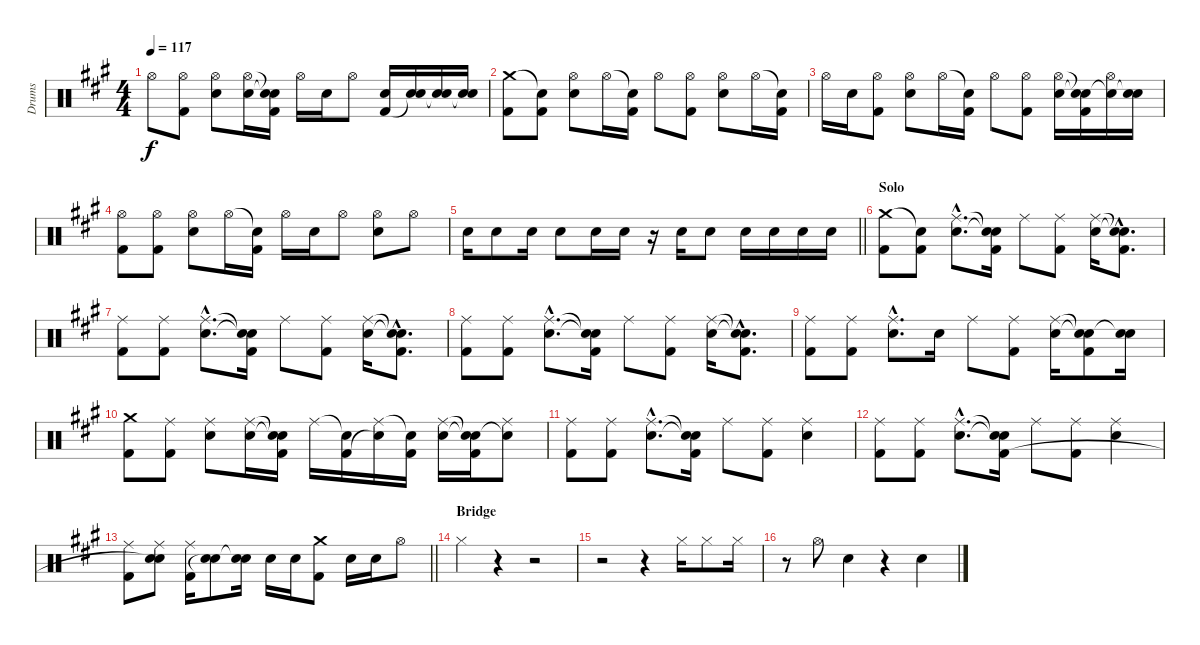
\track ("Drums" "Drums") {instrument percussion}
\staff {score}
\articulation defaults
\ts (4 4)
\tempo 117
\clef neutral
\ks f#minor "Hi-Hat (open)".8{dy f}
("Hi-Hat (open)" "Kick (hit) 2").8 ("Hi-Hat (open)" "Electric Snare (hit)").8 ("Hi-Hat (open)" "Electric Snare (hit)").16 ("Snare (hit)"{t} "Snare (hit)"{t} "Kick (hit) 2").16 "Hi-Hat (open)".16 "Electric Snare (hit)".16 "Hi-Hat (open)".8 ("Electric Snare (hit)" "Kick (hit) 2").16 ("Electric Snare (hit)" "Snare (hit)"{t}).16 ("Electric Snare (hit)" "Snare (hit)"{t}).16 ("Electric Snare (hit)" "Snare (hit)"{t}).16 |
("Crash medium (hit)" "Kick (hit) 2").8 ("Snare (hit)"{t} "Kick (hit) 2").8 ("Hi-Hat (open)" "Electric Snare (hit)").8 "Hi-Hat (open)".16 ("Snare (hit)"{t} "Kick (hit) 2").16 "Hi-Hat (open)".8 ("Hi-Hat (open)" "Kick (hit) 2").8 ("Hi-Hat (open)" "Electric Snare (hit)").8 "Hi-Hat (open)".16 ("Snare (hit)"{t} "Kick (hit) 2").16 |
"Hi-Hat (open)".16 "Electric Snare (hit)".16 ("Hi-Hat (open)" "Kick (hit) 2").8 ("Hi-Hat (open)" "Electric Snare (hit)").8 "Hi-Hat (open)".16 ("Snare (hit)"{t} "Kick (hit) 2").16 "Hi-Hat (open)".8 ("Hi-Hat (open)" "Kick (hit) 2").8 ("Hi-Hat (open)" "Electric Snare (hit)").16 ("Snare (hit)"{t} "Snare (hit)"{t} "Kick (hit) 2").16 ("Hi-Hat (open)" "Snare (hit)"{t}).16 ("Electric Snare (hit)" "Snare (hit)"{t}).16 |
("Hi-Hat (open)" "Kick (hit) 2").8 ("Hi-Hat (open)" "Kick (hit) 2").8 ("Hi-Hat (open)" "Electric Snare (hit)").8 "Hi-Hat (open)".16 ("Snare (hit)"{t} "Kick (hit) 2").16 "Hi-Hat (open)".16 "Electric Snare (hit)".16 "Hi-Hat (open)".8 ("Hi-Hat (open)" "Electric Snare (hit)").8 "Hi-Hat (open)".8 |
\barLineRight lightlight "Electric Snare (hit)".16 "Electric Snare (hit)".8 "Electric Snare (hit)".16 "Electric Snare (hit)".8 "Electric Snare (hit)".16 "Electric Snare (hit)".16
r.16 "Electric Snare (hit)".16 "Electric Snare (hit)".8 "Electric Snare (hit)".16 "Electric Snare (hit)".16 "Electric Snare (hit)".16 "Electric Snare (hit)".16 |
\section ("" "Solo")
("Crash medium (hit)" "Kick (hit) 2").8 ("Snare (hit)"{t} "Kick (hit) 2").8 ("Ride (middle)"{hac} "Electric Snare (hit)"{hac}).8{d} ("Snare (hit)"{t} "Snare (hit)"{t} "Kick (hit) 2").16 "Ride (middle)".8 ("Ride (middle)" "Kick (hit) 2").8 ("Ride (middle)" "Electric Snare (hit)").16 ("Snare (hit)"{hac t} "Snare (hit)"{hac t} "Kick (hit) 2"{hac}).8{d} |
("Ride (middle)" "Kick (hit) 2").8 ("Ride (middle)" "Kick (hit) 2").8 ("Ride (middle)"{hac} "Electric Snare (hit)"{hac}).8{d} ("Snare (hit)"{t} "Snare (hit)"{t} "Kick (hit) 2").16 "Ride (middle)".8 ("Ride (middle)" "Kick (hit) 2").8 ("Ride (middle)" "Electric Snare (hit)").16 ("Snare (hit)"{hac t} "Snare (hit)"{hac t} "Kick (hit) 2"{hac}).8{d} |
("Ride (middle)" "Kick (hit) 2").8 ("Ride (middle)" "Kick (hit) 2").8 ("Ride (middle)"{hac} "Electric Snare (hit)"{hac}).8{d} ("Snare (hit)"{t} "Snare (hit)"{t} "Kick (hit) 2").16 "Ride (middle)".8 ("Ride (middle)" "Kick (hit) 2").8 ("Ride (middle)" "Electric Snare (hit)").16 ("Snare (hit)"{hac t} "Snare (hit)"{hac t} "Kick (hit) 2"{hac}).8{d} |
("Ride (middle)" "Kick (hit) 2").8 ("Ride (middle)" "Kick (hit) 2").8 ("Ride (middle)"{hac} "Electric Snare (hit)"{hac}).8{d} "Electric Snare (hit)".16 "Ride (middle)".8 ("Ride (middle)" "Kick (hit) 2").8 ("Ride (middle)" "Electric Snare (hit)").16 ("Snare (hit)"{t} "Snare (hit)"{t} "Kick (hit) 2").8 ("Electric Snare (hit)" "Snare (hit)"{t}).16 |
("Crash medium (hit)" "Kick (hit) 2").8 ("Ride (middle)" "Kick (hit) 2").8 ("Ride (middle)" "Electric Snare (hit)").8 ("Ride (middle)" "Electric Snare (hit)").16 ("Snare (hit)"{t} "Snare (hit)"{t} "Kick (hit) 2").16 "Ride (middle)".16 ("Snare (hit)"{t} "Kick (hit) 2").16 ("Ride (middle)" "Snare (hit)"{t}).16 ("Snare (hit)"{t} "Kick (hit) 2").16 ("Ride (middle)" "Electric Snare (hit)").16 ("Snare (hit)"{t} "Snare (hit)"{t} "Kick (hit) 2").16 ("Ride (middle)" "Snare (hit)"{t}).8 |
("Ride (middle)" "Kick (hit) 2").8 ("Ride (middle)" "Kick (hit) 2").8 ("Ride (middle)"{hac} "Electric Snare (hit)"{hac}).8{d} ("Snare (hit)"{t} "Snare (hit)"{t} "Kick (hit) 2").16 "Ride (middle)".8 ("Ride (middle)" "Kick (hit) 2").8 ("Ride (middle)" "Electric Snare (hit)").4 |
("Ride (middle)" "Kick (hit) 2").8 ("Ride (middle)" "Kick (hit) 2").8 ("Ride (middle)"{hac} "Electric Snare (hit)"{hac}).8{d} ("Snare (hit)"{t} "Snare (hit)"{t} "Kick (hit) 2").16 "Ride (middle)".8 ("Ride (middle)" "Kick (hit) 2").8 ("Ride (middle)" "Electric Snare (hit)").4 |
\barLineRight lightlight
("Ride (middle)" "Kick (hit) 2").8 ("Ride (middle)" "Electric Snare (hit)" "Snare (hit)"{t}).8 ("Ride (middle)" "Kick (hit) 2").16 ("Electric Snare (hit)" "Snare (hit)"{t}).8 ("Electric Snare (hit)" "Snare (hit)"{t}).16 "Electric Snare (hit)".16 "Electric Snare (hit)".16 ("Crash medium (hit)" "Kick (hit) 2").8 "Electric Snare (hit)".16 "Electric Snare (hit)".16 "Hi-Hat (open)".8 |
\section ("" "Bridge")
"Hi-Hat (closed)".4 r.4 r.2 |
r.2 r.4 "Hi-Hat (closed)".16 "Hi-Hat (closed)".8 "Hi-Hat (closed)".16 |
r.8 "Hi-Hat (open)".8 "Electric Snare (hit)".4 r.4 "Electric Snare (hit)".4
